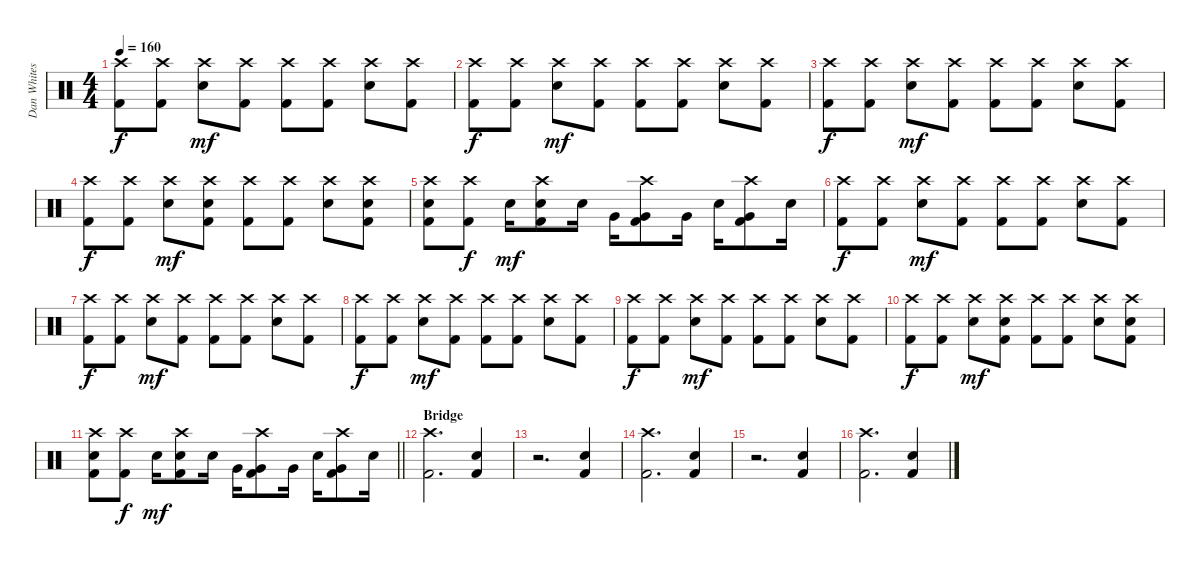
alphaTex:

\track ("Dan Whitesides" "Dan Whites") {instrument percussion}
\staff {score}
\articulation defaults
\ts (4 4)
\tempo 160
\clef neutral
\ks c
("Crash high (hit)" "Kick (hit) 2").8{dy f} ("Crash high (hit)" "Kick (hit) 2").8 ("Crash high (hit)" "Snare (hit) 2").8{dy mf} ("Crash high (hit)" "Kick (hit) 2").8 ("Crash high (hit)" "Kick (hit) 2").8 ("Crash high (hit)" "Kick (hit) 2").8 ("Crash high (hit)" "Snare (hit) 2").8 ("Crash high (hit)" "Kick (hit) 2").8 |
("Crash high (hit)" "Kick (hit) 2").8{dy f} ("Crash high (hit)" "Kick (hit) 2").8 ("Crash high (hit)" "Snare (hit) 2").8{dy mf} ("Crash high (hit)" "Kick (hit) 2").8 ("Crash high (hit)" "Kick (hit) 2").8 ("Crash high (hit)" "Kick (hit) 2").8 ("Crash high (hit)" "Snare (hit) 2").8 ("Crash high (hit)" "Kick (hit) 2").8 |
("Crash high (hit)" "Kick (hit) 2").8{dy f} ("Crash high (hit)" "Kick (hit) 2").8 ("Crash high (hit)" "Snare (hit) 2").8{dy mf} ("Crash high (hit)" "Kick (hit) 2").8 ("Crash high (hit)" "Kick (hit) 2").8 ("Crash high (hit)" "Kick (hit) 2").8 ("Crash high (hit)" "Snare (hit) 2").8 ("Crash high (hit)" "Kick (hit) 2").8 |
("Crash high (hit)" "Kick (hit) 2").8{dy f} ("Crash high (hit)" "Kick (hit) 2").8 ("Crash high (hit)" "Snare (hit) 2").8{dy mf} ("Crash high (hit)" "Snare (hit) 2" "Kick (hit) 2").8 ("Crash high (hit)" "Kick (hit) 2").8 ("Crash high (hit)" "Kick (hit) 2").8 ("Crash high (hit)" "Snare (hit) 2").8 ("Crash high (hit)" "Snare (hit) 2" "Kick (hit) 2").8 |
("Crash high (hit)" "Snare (hit) 2" "Kick (hit) 2").8 ("Crash high (hit)" "Kick (hit) 2").8{dy f} "Snare (hit) 2".16{dy mf} ("Crash high (hit)" "Snare (hit) 2" "Kick (hit) 2").8 "Snare (hit) 2".16 "Very Low Tom (hit)".16 ("Crash high (hit)" "Very Low Tom (hit)" "Kick (hit) 2").8 "Very Low Tom (hit)".16 "Snare (hit) 2".16 ("Crash high (hit)" "Very Low Tom (hit)" "Kick (hit) 2").8 "Snare (hit) 2".16 |
("Crash high (hit)" "Kick (hit) 2").8{dy f} ("Crash high (hit)" "Kick (hit) 2").8 ("Crash high (hit)" "Snare (hit) 2").8{dy mf} ("Crash high (hit)" "Kick (hit) 2").8 ("Crash high (hit)" "Kick (hit) 2").8 ("Crash high (hit)" "Kick (hit) 2").8 ("Crash high (hit)" "Snare (hit) 2").8 ("Crash high (hit)" "Kick (hit) 2").8 |
("Crash high (hit)" "Kick (hit) 2").8{dy f} ("Crash high (hit)" "Kick (hit) 2").8 ("Crash high (hit)" "Snare (hit) 2").8{dy mf} ("Crash high (hit)" "Kick (hit) 2").8 ("Crash high (hit)" "Kick (hit) 2").8 ("Crash high (hit)" "Kick (hit) 2").8 ("Crash high (hit)" "Snare (hit) 2").8 ("Crash high (hit)" "Kick (hit) 2").8 |
("Crash high (hit)" "Kick (hit) 2").8{dy f} ("Crash high (hit)" "Kick (hit) 2").8 ("Crash high (hit)" "Snare (hit) 2").8{dy mf} ("Crash high (hit)" "Kick (hit) 2").8 ("Crash high (hit)" "Kick (hit) 2").8 ("Crash high (hit)" "Kick (hit) 2").8 ("Crash high (hit)" "Snare (hit) 2").8 ("Crash high (hit)" "Kick (hit) 2").8 |
("Crash high (hit)" "Kick (hit) 2").8{dy f} ("Crash high (hit)" "Kick (hit) 2").8 ("Crash high (hit)" "Snare (hit) 2").8{dy mf} ("Crash high (hit)" "Kick (hit) 2").8 ("Crash high (hit)" "Kick (hit) 2").8 ("Crash high (hit)" "Kick (hit) 2").8 ("Crash high (hit)" "Snare (hit) 2").8 ("Crash high (hit)" "Kick (hit) 2").8 |
("Crash high (hit)" "Kick (hit) 2").8{dy f} ("Crash high (hit)" "Kick (hit) 2").8 ("Crash high (hit)" "Snare (hit) 2").8{dy mf} ("Crash high (hit)" "Snare (hit) 2" "Kick (hit) 2").8 ("Crash high (hit)" "Kick (hit) 2").8 ("Crash high (hit)" "Kick (hit) 2").8 ("Crash high (hit)" "Snare (hit) 2").8 ("Crash high (hit)" "Snare (hit) 2" "Kick (hit) 2").8 |
\barLineRight lightlight
("Crash high (hit)" "Snare (hit) 2" "Kick (hit) 2").8 ("Crash high (hit)" "Kick (hit) 2").8{dy f} "Snare (hit) 2".16{dy mf} ("Crash high (hit)" "Snare (hit) 2" "Kick (hit) 2").8 "Snare (hit) 2".16 "Very Low Tom (hit)".16 ("Crash high (hit)" "Very Low Tom (hit)" "Kick (hit) 2").8 "Very Low Tom (hit)".16 "Snare (hit) 2".16 ("Crash high (hit)" "Very Low Tom (hit)" "Kick (hit) 2").8 "Snare (hit) 2".16 |
\section ("" "Bridge")
("Crash high (hit)" "Kick (hit) 2").2{d} ("Snare (hit) 2" "Kick (hit) 2").4 |
r.2{d} ("Snare (hit) 2" "Kick (hit) 2").4 |
("Crash high (hit)" "Kick (hit) 2").2{d} ("Snare (hit) 2" "Kick (hit) 2").4 |
r.2{d} ("Snare (hit) 2" "Kick (hit) 2").4 |
("Crash high (hit)" "Kick (hit) 2").2{d} ("Snare (hit) 2" "Kick (hit) 2").4
